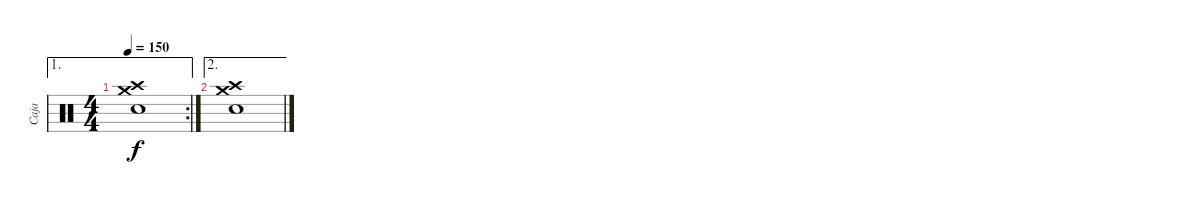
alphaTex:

\track ("Caja" "Caja") {instrument percussion}
\staff {score}
\articulation defaults
\ae 1
\rc 2
\ts (4 4)
\tempo 150
\clef neutral
\ks c
("Crash medium (hit)" "Crash high (hit)" "Electric Snare (hit)").1{dy f} |
\ae 2
("Crash medium (hit)" "Crash high (hit)" "Electric Snare (hit)").1
